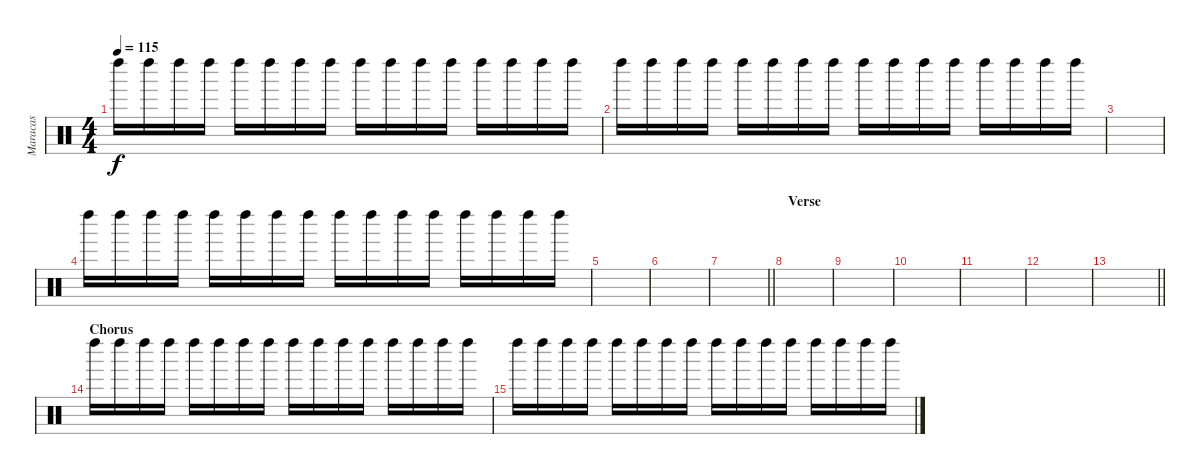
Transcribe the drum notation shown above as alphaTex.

\track ("Maracas" "Maracas") {instrument percussion}
\staff {score}
\articulation defaults
\ts (4 4)
\tempo 115
\clef neutral
\ks c "Left Maraca (hit)".16{dy f} "Left Maraca (hit)".16 "Left Maraca (hit)".16 "Left Maraca (hit)".16 "Left Maraca (hit)".16 "Left Maraca (hit)".16 "Left Maraca (hit)".16 "Left Maraca (hit)".16 "Left Maraca (hit)".16 "Left Maraca (hit)".16 "Left Maraca (hit)".16 "Left Maraca (hit)".16 "Left Maraca (hit)".16 "Left Maraca (hit)".16 "Left Maraca (hit)".16 "Left Maraca (hit)".16
|
"Left Maraca (hit)".16 "Left Maraca (hit)".16 "Left Maraca (hit)".16 "Left Maraca (hit)".16 "Left Maraca (hit)".16 "Left Maraca (hit)".16 "Left Maraca (hit)".16 "Left Maraca (hit)".16 "Left Maraca (hit)".16 "Left Maraca (hit)".16 "Left Maraca (hit)".16 "Left Maraca (hit)".16 "Left Maraca (hit)".16 "Left Maraca (hit)".16 "Left Maraca (hit)".16 "Left Maraca (hit)".16 |
|
"Left Maraca (hit)".16 "Left Maraca (hit)".16 "Left Maraca (hit)".16 "Left Maraca (hit)".16 "Left Maraca (hit)".16 "Left Maraca (hit)".16 "Left Maraca (hit)".16 "Left Maraca (hit)".16 "Left Maraca (hit)".16 "Left Maraca (hit)".16 "Left Maraca (hit)".16 "Left Maraca (hit)".16 "Left Maraca (hit)".16 "Left Maraca (hit)".16 "Left Maraca (hit)".16 "Left Maraca (hit)".16 |
|
|
\barLineRight lightlight
|
\section ("" "Verse")
|
|
|
|
|
\barLineRight lightlight
|
\section ("" "Chorus")
"Left Maraca (hit)".16 "Left Maraca (hit)".16 "Left Maraca (hit)".16 "Left Maraca (hit)".16 "Left Maraca (hit)".16 "Left Maraca (hit)".16 "Left Maraca (hit)".16 "Left Maraca (hit)".16 "Left Maraca (hit)".16 "Left Maraca (hit)".16 "Left Maraca (hit)".16 "Left Maraca (hit)".16 "Left Maraca (hit)".16 "Left Maraca (hit)".16 "Left Maraca (hit)".16 "Left Maraca (hit)".16 |
"Left Maraca (hit)".16 "Left Maraca (hit)".16 "Left Maraca (hit)".16 "Left Maraca (hit)".16 "Left Maraca (hit)".16 "Left Maraca (hit)".16 "Left Maraca (hit)".16 "Left Maraca (hit)".16 "Left Maraca (hit)".16 "Left Maraca (hit)".16 "Left Maraca (hit)".16 "Left Maraca (hit)".16 "Left Maraca (hit)".16 "Left Maraca (hit)".16 "Left Maraca (hit)".16 "Left Maraca (hit)".16
